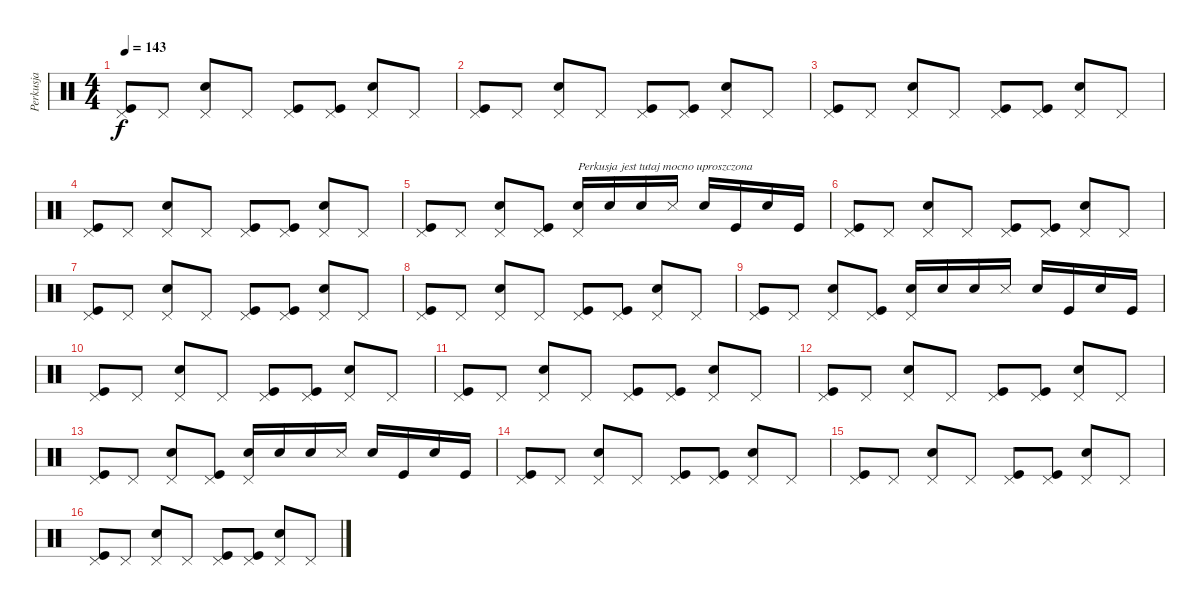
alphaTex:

\track ("Perkusja" "Perkusja") {instrument percussion}
\staff {score}
\articulation defaults
\ts (4 4)
\tempo 143
\clef neutral
\ks c
("Pedal Hi-Hat (hit)" "Kick (hit)").8{dy f} "Pedal Hi-Hat (hit)".8 ("Pedal Hi-Hat (hit)" "Snare (hit) 2").8 "Pedal Hi-Hat (hit)".8 ("Pedal Hi-Hat (hit)" "Kick (hit)").8 ("Pedal Hi-Hat (hit)" "Kick (hit)").8 ("Pedal Hi-Hat (hit)" "Snare (hit) 2").8 "Pedal Hi-Hat (hit)".8 |
("Pedal Hi-Hat (hit)" "Kick (hit)").8 "Pedal Hi-Hat (hit)".8 ("Pedal Hi-Hat (hit)" "Snare (hit) 2").8 "Pedal Hi-Hat (hit)".8 ("Pedal Hi-Hat (hit)" "Kick (hit)").8 ("Pedal Hi-Hat (hit)" "Kick (hit)").8 ("Pedal Hi-Hat (hit)" "Snare (hit) 2").8 "Pedal Hi-Hat (hit)".8 |
("Pedal Hi-Hat (hit)" "Kick (hit)").8 "Pedal Hi-Hat (hit)".8 ("Pedal Hi-Hat (hit)" "Snare (hit) 2").8 "Pedal Hi-Hat (hit)".8 ("Pedal Hi-Hat (hit)" "Kick (hit)").8 ("Pedal Hi-Hat (hit)" "Kick (hit)").8 ("Pedal Hi-Hat (hit)" "Snare (hit) 2").8 "Pedal Hi-Hat (hit)".8 |
("Pedal Hi-Hat (hit)" "Kick (hit)").8 "Pedal Hi-Hat (hit)".8 ("Pedal Hi-Hat (hit)" "Snare (hit) 2").8 "Pedal Hi-Hat (hit)".8 ("Pedal Hi-Hat (hit)" "Kick (hit)").8 ("Pedal Hi-Hat (hit)" "Kick (hit)").8 ("Pedal Hi-Hat (hit)" "Snare (hit) 2").8 "Pedal Hi-Hat (hit)".8 |
("Pedal Hi-Hat (hit)" "Kick (hit)").8 "Pedal Hi-Hat (hit)".8 ("Pedal Hi-Hat (hit)" "Snare (hit) 2").8 ("Pedal Hi-Hat (hit)" "Kick (hit)").8 ("Pedal Hi-Hat (hit)" "Snare (hit) 2").16{txt "Perkusja jest tutaj mocno uproszczona"} "Snare (hit) 2".16 "Snare (hit) 2".16 "Snare (side stick) 3".16 "Snare (hit) 2".16 "Kick (hit)".16 "Snare (hit) 2".16 "Kick (hit)".16 |
("Pedal Hi-Hat (hit)" "Kick (hit)").8 "Pedal Hi-Hat (hit)".8 ("Pedal Hi-Hat (hit)" "Snare (hit) 2").8 "Pedal Hi-Hat (hit)".8 ("Pedal Hi-Hat (hit)" "Kick (hit)").8 ("Pedal Hi-Hat (hit)" "Kick (hit)").8 ("Pedal Hi-Hat (hit)" "Snare (hit) 2").8 "Pedal Hi-Hat (hit)".8 |
("Pedal Hi-Hat (hit)" "Kick (hit)").8 "Pedal Hi-Hat (hit)".8 ("Pedal Hi-Hat (hit)" "Snare (hit) 2").8 "Pedal Hi-Hat (hit)".8 ("Pedal Hi-Hat (hit)" "Kick (hit)").8 ("Pedal Hi-Hat (hit)" "Kick (hit)").8 ("Pedal Hi-Hat (hit)" "Snare (hit) 2").8 "Pedal Hi-Hat (hit)".8 |
("Pedal Hi-Hat (hit)" "Kick (hit)").8 "Pedal Hi-Hat (hit)".8 ("Pedal Hi-Hat (hit)" "Snare (hit) 2").8 "Pedal Hi-Hat (hit)".8 ("Pedal Hi-Hat (hit)" "Kick (hit)").8 ("Pedal Hi-Hat (hit)" "Kick (hit)").8 ("Pedal Hi-Hat (hit)" "Snare (hit) 2").8 "Pedal Hi-Hat (hit)".8 |
("Pedal Hi-Hat (hit)" "Kick (hit)").8 "Pedal Hi-Hat (hit)".8 ("Pedal Hi-Hat (hit)" "Snare (hit) 2").8 ("Pedal Hi-Hat (hit)" "Kick (hit)").8 ("Pedal Hi-Hat (hit)" "Snare (hit) 2").16 "Snare (hit) 2".16 "Snare (hit) 2".16 "Snare (side stick) 3".16 "Snare (hit) 2".16 "Kick (hit)".16 "Snare (hit) 2".16 "Kick (hit)".16 |
("Pedal Hi-Hat (hit)" "Kick (hit)").8 "Pedal Hi-Hat (hit)".8 ("Pedal Hi-Hat (hit)" "Snare (hit) 2").8 "Pedal Hi-Hat (hit)".8 ("Pedal Hi-Hat (hit)" "Kick (hit)").8 ("Pedal Hi-Hat (hit)" "Kick (hit)").8 ("Pedal Hi-Hat (hit)" "Snare (hit) 2").8 "Pedal Hi-Hat (hit)".8 |
("Pedal Hi-Hat (hit)" "Kick (hit)").8 "Pedal Hi-Hat (hit)".8 ("Pedal Hi-Hat (hit)" "Snare (hit) 2").8 "Pedal Hi-Hat (hit)".8 ("Pedal Hi-Hat (hit)" "Kick (hit)").8 ("Pedal Hi-Hat (hit)" "Kick (hit)").8 ("Pedal Hi-Hat (hit)" "Snare (hit) 2").8 "Pedal Hi-Hat (hit)".8 |
("Pedal Hi-Hat (hit)" "Kick (hit)").8 "Pedal Hi-Hat (hit)".8 ("Pedal Hi-Hat (hit)" "Snare (hit) 2").8 "Pedal Hi-Hat (hit)".8 ("Pedal Hi-Hat (hit)" "Kick (hit)").8 ("Pedal Hi-Hat (hit)" "Kick (hit)").8 ("Pedal Hi-Hat (hit)" "Snare (hit) 2").8 "Pedal Hi-Hat (hit)".8 |
("Pedal Hi-Hat (hit)" "Kick (hit)").8 "Pedal Hi-Hat (hit)".8 ("Pedal Hi-Hat (hit)" "Snare (hit) 2").8 ("Pedal Hi-Hat (hit)" "Kick (hit)").8 ("Pedal Hi-Hat (hit)" "Snare (hit) 2").16 "Snare (hit) 2".16 "Snare (hit) 2".16 "Snare (side stick) 3".16 "Snare (hit) 2".16 "Kick (hit)".16 "Snare (hit) 2".16 "Kick (hit)".16 |
("Pedal Hi-Hat (hit)" "Kick (hit)").8 "Pedal Hi-Hat (hit)".8 ("Pedal Hi-Hat (hit)" "Snare (hit) 2").8 "Pedal Hi-Hat (hit)".8 ("Pedal Hi-Hat (hit)" "Kick (hit)").8 ("Pedal Hi-Hat (hit)" "Kick (hit)").8 ("Pedal Hi-Hat (hit)" "Snare (hit) 2").8 "Pedal Hi-Hat (hit)".8 |
("Pedal Hi-Hat (hit)" "Kick (hit)").8 "Pedal Hi-Hat (hit)".8 ("Pedal Hi-Hat (hit)" "Snare (hit) 2").8 "Pedal Hi-Hat (hit)".8 ("Pedal Hi-Hat (hit)" "Kick (hit)").8 ("Pedal Hi-Hat (hit)" "Kick (hit)").8 ("Pedal Hi-Hat (hit)" "Snare (hit) 2").8 "Pedal Hi-Hat (hit)".8 |
("Pedal Hi-Hat (hit)" "Kick (hit)").8 "Pedal Hi-Hat (hit)".8 ("Pedal Hi-Hat (hit)" "Snare (hit) 2").8 "Pedal Hi-Hat (hit)".8 ("Pedal Hi-Hat (hit)" "Kick (hit)").8 ("Pedal Hi-Hat (hit)" "Kick (hit)").8 ("Pedal Hi-Hat (hit)" "Snare (hit) 2").8 "Pedal Hi-Hat (hit)".8
